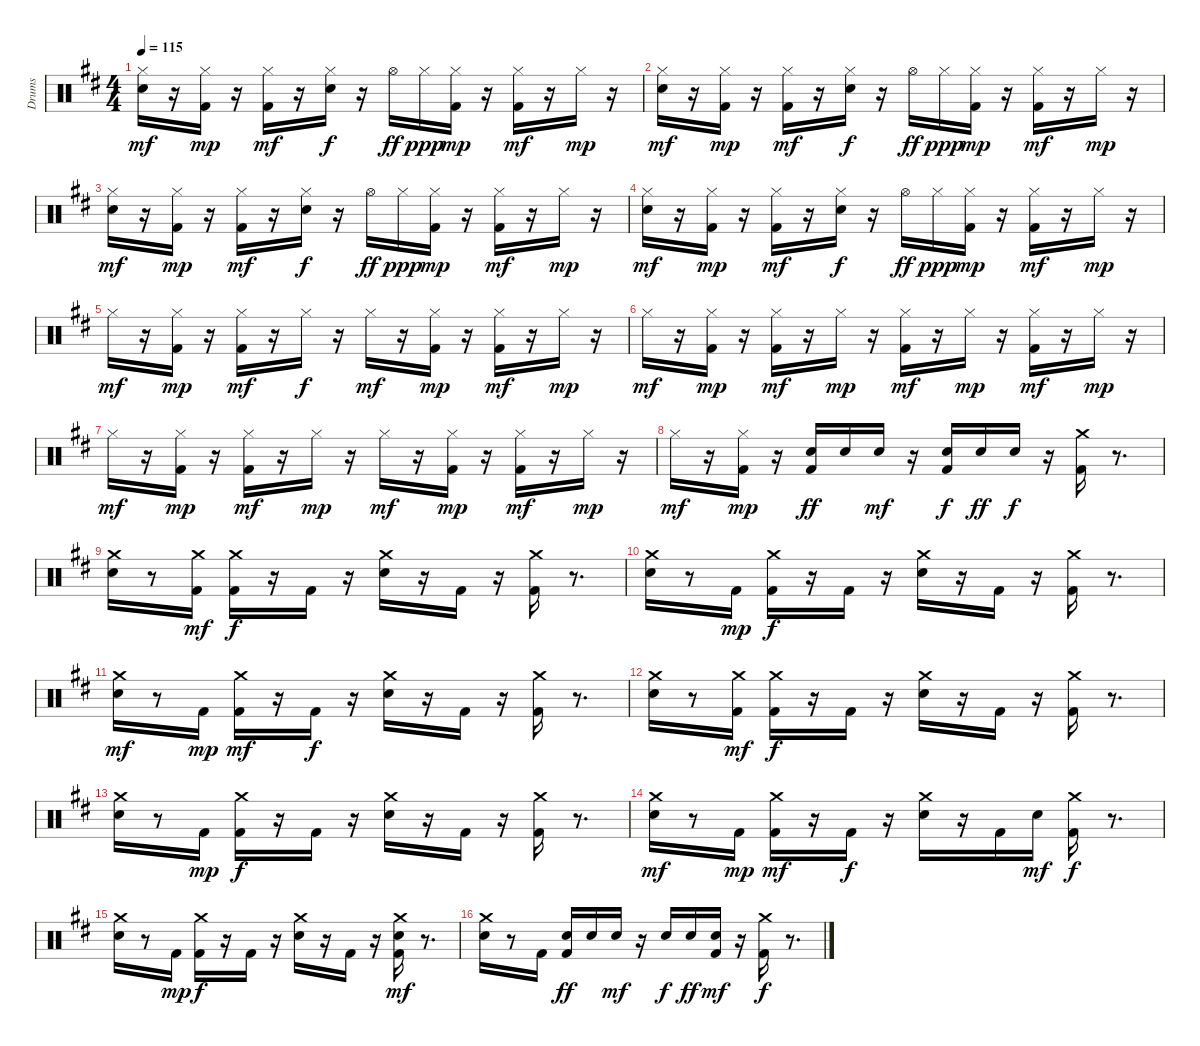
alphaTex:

\track ("Drums" "Drums") {instrument percussion}
\staff {score}
\articulation defaults
\ts (4 4)
\tempo 115
\clef neutral
\ks d
("Hi-Hat (closed)" "Snare (hit) 2").16{dy mf} r.16 ("Kick (hit) 2" "Hi-Hat (closed)").16{dy mp} r.16 ("Kick (hit) 2" "Hi-Hat (closed)").16{dy mf} r.16 ("Hi-Hat (closed)" "Snare (hit) 2").16{dy f} r.16 "Hi-Hat (open)".16{dy ff} "Hi-Hat (closed)".16{dy ppp} ("Kick (hit) 2" "Hi-Hat (closed)").16{dy mp} r.16 ("Kick (hit) 2" "Hi-Hat (closed)").16{dy mf} r.16 "Hi-Hat (closed)".16{dy mp} r.16 |
("Hi-Hat (closed)" "Snare (hit) 2").16{dy mf} r.16 ("Kick (hit) 2" "Hi-Hat (closed)").16{dy mp} r.16 ("Kick (hit) 2" "Hi-Hat (closed)").16{dy mf} r.16 ("Hi-Hat (closed)" "Snare (hit) 2").16{dy f} r.16 "Hi-Hat (open)".16{dy ff} "Hi-Hat (closed)".16{dy ppp} ("Kick (hit) 2" "Hi-Hat (closed)").16{dy mp} r.16 ("Kick (hit) 2" "Hi-Hat (closed)").16{dy mf} r.16 "Hi-Hat (closed)".16{dy mp} r.16 |
("Hi-Hat (closed)" "Snare (hit) 2").16{dy mf} r.16 ("Kick (hit) 2" "Hi-Hat (closed)").16{dy mp} r.16 ("Kick (hit) 2" "Hi-Hat (closed)").16{dy mf} r.16 ("Hi-Hat (closed)" "Snare (hit) 2").16{dy f} r.16 "Hi-Hat (open)".16{dy ff} "Hi-Hat (closed)".16{dy ppp} ("Kick (hit) 2" "Hi-Hat (closed)").16{dy mp} r.16 ("Kick (hit) 2" "Hi-Hat (closed)").16{dy mf} r.16 "Hi-Hat (closed)".16{dy mp} r.16 |
("Hi-Hat (closed)" "Snare (hit) 2").16{dy mf} r.16 ("Kick (hit) 2" "Hi-Hat (closed)").16{dy mp} r.16 ("Kick (hit) 2" "Hi-Hat (closed)").16{dy mf} r.16 ("Hi-Hat (closed)" "Snare (hit) 2").16{dy f} r.16 "Hi-Hat (open)".16{dy ff} "Hi-Hat (closed)".16{dy ppp} ("Kick (hit) 2" "Hi-Hat (closed)").16{dy mp} r.16 ("Kick (hit) 2" "Hi-Hat (closed)").16{dy mf} r.16 "Hi-Hat (closed)".16{dy mp} r.16 |
"Hi-Hat (closed)".16{dy mf} r.16 ("Kick (hit) 2" "Hi-Hat (closed)").16{dy mp} r.16 ("Kick (hit) 2" "Hi-Hat (closed)").16{dy mf} r.16 "Hi-Hat (closed)".16{dy f} r.16 "Hi-Hat (closed)".16{dy mf} r.16 ("Kick (hit) 2" "Hi-Hat (closed)").16{dy mp} r.16 ("Kick (hit) 2" "Hi-Hat (closed)").16{dy mf} r.16 "Hi-Hat (closed)".16{dy mp} r.16 |
"Hi-Hat (closed)".16{dy mf} r.16 ("Kick (hit) 2" "Hi-Hat (closed)").16{dy mp} r.16 ("Kick (hit) 2" "Hi-Hat (closed)").16{dy mf} r.16 "Hi-Hat (closed)".16{dy mp} r.16 ("Kick (hit) 2" "Hi-Hat (closed)").16{dy mf} r.16 "Hi-Hat (closed)".16{dy mp} r.16 ("Kick (hit) 2" "Hi-Hat (closed)").16{dy mf} r.16 "Hi-Hat (closed)".16{dy mp} r.16 |
"Hi-Hat (closed)".16{dy mf} r.16 ("Kick (hit) 2" "Hi-Hat (closed)").16{dy mp} r.16 ("Kick (hit) 2" "Hi-Hat (closed)").16{dy mf} r.16 "Hi-Hat (closed)".16{dy mp} r.16 "Hi-Hat (closed)".16{dy mf} r.16 ("Kick (hit) 2" "Hi-Hat (closed)").16{dy mp} r.16 ("Kick (hit) 2" "Hi-Hat (closed)").16{dy mf} r.16 "Hi-Hat (closed)".16{dy mp} r.16 |
"Hi-Hat (closed)".16{dy mf} r.16 ("Kick (hit) 2" "Hi-Hat (closed)").16{dy mp} r.16 ("Kick (hit) 2" "Snare (hit) 2").16{dy ff} "Snare (hit) 2".16 "Snare (hit) 2".16{dy mf} r.16 ("Kick (hit) 2" "Snare (hit) 2").16{dy f} "Snare (hit) 2".16{dy ff} "Snare (hit) 2".16{dy f} r.16 ("Kick (hit) 2" "Crash medium (hit)").16 r.8{d} |
("Crash medium (hit)" "Snare (hit) 2").16 r.8 ("Kick (hit) 2" "Crash medium (hit)").16{dy mf} ("Kick (hit) 2" "Crash medium (hit)").16{dy f} r.16 "Kick (hit) 2".16 r.16 ("Crash medium (hit)" "Snare (hit) 2").16 r.16 "Kick (hit) 2".16 r.16 ("Kick (hit) 2" "Crash medium (hit)").16 r.8{d} |
("Crash medium (hit)" "Snare (hit) 2").16 r.8 "Kick (hit) 2".16{dy mp} ("Kick (hit) 2" "Crash medium (hit)").16{dy f} r.16 "Kick (hit) 2".16 r.16 ("Crash medium (hit)" "Snare (hit) 2").16 r.16 "Kick (hit) 2".16 r.16 ("Kick (hit) 2" "Crash medium (hit)").16 r.8{d} |
("Crash medium (hit)" "Snare (hit) 2").16{dy mf} r.8 "Kick (hit) 2".16{dy mp} ("Kick (hit) 2" "Crash medium (hit)").16{dy mf} r.16 "Kick (hit) 2".16{dy f} r.16 ("Crash medium (hit)" "Snare (hit) 2").16 r.16 "Kick (hit) 2".16 r.16 ("Kick (hit) 2" "Crash medium (hit)").16 r.8{d} |
("Crash medium (hit)" "Snare (hit) 2").16 r.8 ("Kick (hit) 2" "Crash medium (hit)").16{dy mf} ("Kick (hit) 2" "Crash medium (hit)").16{dy f} r.16 "Kick (hit) 2".16 r.16 ("Crash medium (hit)" "Snare (hit) 2").16 r.16 "Kick (hit) 2".16 r.16 ("Kick (hit) 2" "Crash medium (hit)").16 r.8{d} |
("Snare (hit) 2" "Crash medium (hit)").16 r.8 "Kick (hit) 2".16{dy mp} ("Kick (hit) 2" "Crash medium (hit)").16{dy f} r.16 "Kick (hit) 2".16 r.16 ("Crash medium (hit)" "Snare (hit) 2").16 r.16 "Kick (hit) 2".16 r.16 ("Kick (hit) 2" "Crash medium (hit)").16 r.8{d} |
("Crash medium (hit)" "Snare (hit) 2").16{dy mf} r.8 "Kick (hit) 2".16{dy mp} ("Kick (hit) 2" "Crash medium (hit)").16{dy mf} r.16 "Kick (hit) 2".16{dy f} r.16 ("Crash medium (hit)" "Snare (hit) 2").16 r.16 "Kick (hit) 2".16 "Snare (hit) 2".16{dy mf} ("Kick (hit) 2" "Crash medium (hit)").16{dy f} r.8{d} |
("Crash medium (hit)" "Snare (hit) 2").16 r.8 "Kick (hit) 2".16{dy mp} ("Kick (hit) 2" "Crash medium (hit)").16{dy f} r.16 "Kick (hit) 2".16 r.16 ("Crash medium (hit)" "Snare (hit) 2").16 r.16 "Kick (hit) 2".16 r.16 ("Kick (hit) 2" "Crash medium (hit)" "Snare (hit) 2").16{dy mf} r.8{d} |
("Crash medium (hit)" "Snare (hit) 2").16 r.8 "Kick (hit) 2".16 ("Kick (hit) 2" "Snare (hit) 2").16{dy ff} "Snare (hit) 2".16 "Snare (hit) 2".16{dy mf} r.16 "Snare (hit) 2".16{dy f} "Snare (hit) 2".16{dy ff} ("Kick (hit) 2" "Snare (hit) 2").16{dy mf} r.16 ("Kick (hit) 2" "Crash medium (hit)").16{dy f} r.8{d}
